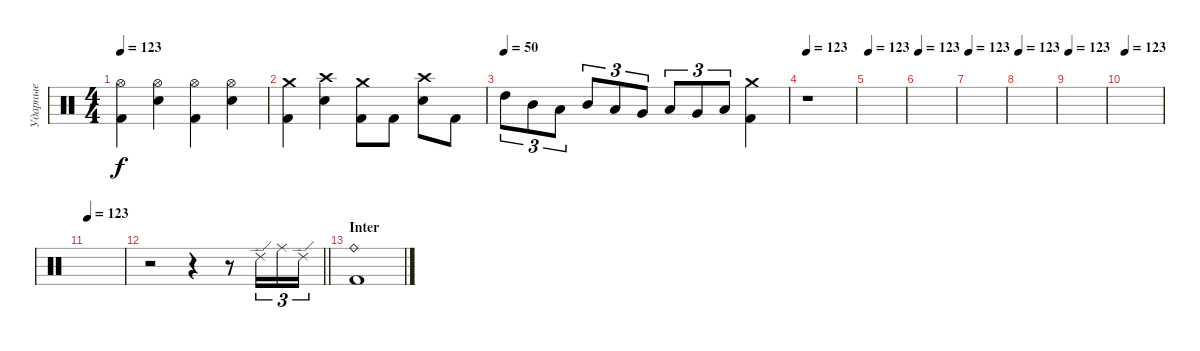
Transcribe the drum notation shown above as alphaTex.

\track ("Ударные" "Ударные") {instrument percussion}
\staff {score}
\articulation defaults
\ts (4 4)
\tempo 123
\clef neutral
\ks c
("Kick (hit) 2" "Hi-Hat (open)").4{dy f} ("Electric Snare (hit)" "Hi-Hat (open)").4 ("Kick (hit) 2" "Hi-Hat (open)").4 ("Electric Snare (hit)" "Hi-Hat (open)").4 |
("Crash medium (hit)" "Kick (hit) 2").4 ("Crash high (hit)" "Electric Snare (hit)").4 ("Crash medium (hit)" "Kick (hit) 2").8 "Kick (hit) 2".8 ("Crash high (hit)" "Electric Snare (hit)").8 "Kick (hit) 2".8 |
\tempo (50)
"High Tom (hit)".8{tu (3 2)} "Mid Tom (hit)".8{tu (3 2)} "Low Tom (hit)".8{tu (3 2)} "Mid Tom (hit)".8{tu (3 2)} "Low Tom (hit)".8{tu (3 2)} "Very Low Tom (hit)".8{tu (3 2)} "Low Tom (hit)".8{tu (3 2)} "Very Low Tom (hit)".8{tu (3 2)} "Low Floor Tom (hit)".8{tu (3 2)} ("Crash medium (hit)" "Kick (hit) 2").4 |
\tempo 123
r.1 |
\tempo 123
|
\tempo 123
|
\tempo 123
|
\tempo 123
|
\tempo 123
|
\tempo 123
|
\tempo 123
|
\barLineRight lightlight
r.2 r.4 r.8 "Ride (edge) 2".16{tu (3 2)} "Ride (middle)".16{tu (3 2)} "Ride (edge) 2".16{tu (3 2)} |
\section ("" "Inter")
("Ride (bell)" "Kick (hit) 2").1
